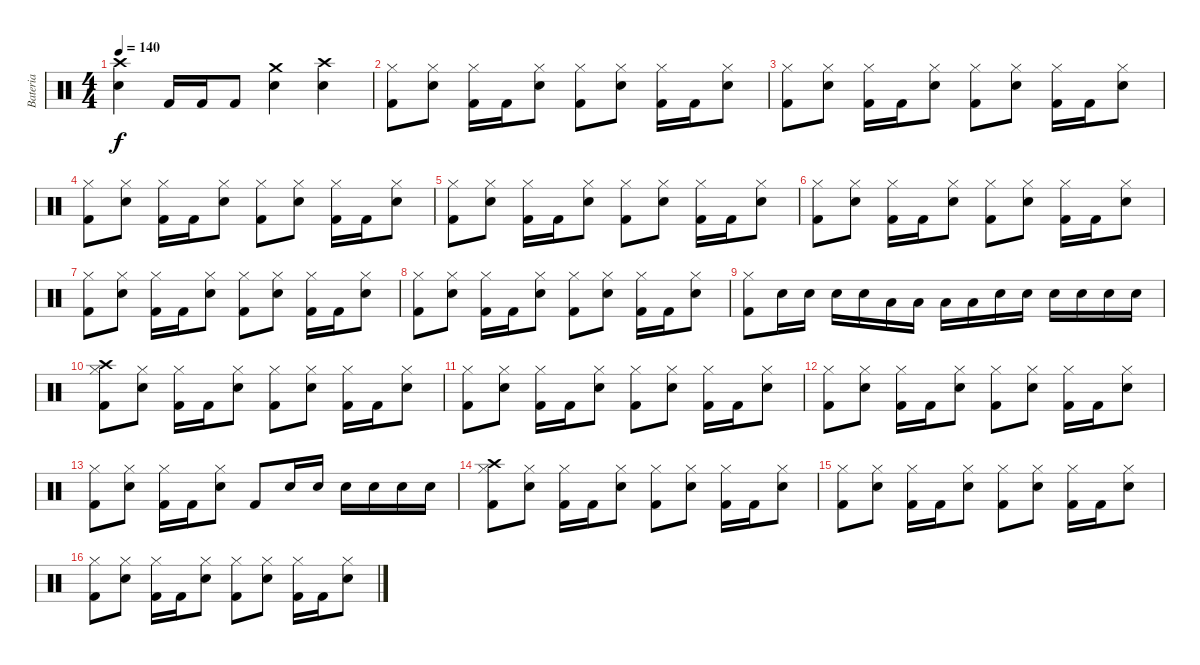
\track ("Bateria" "Bateria") {instrument percussion}
\staff {score}
\articulation defaults
\ts (4 4)
\tempo 140
\clef neutral
\ks c
("Electric Snare (hit)" "Crash high (hit)").4{dy f} "Kick (hit) 2".16 "Kick (hit) 2".16 "Kick (hit) 2".8 ("Electric Snare (hit)" "Crash medium (hit)").4 ("Electric Snare (hit)" "Crash high (hit)").4 |
("Kick (hit) 2" "Hi-Hat (closed)").8 ("Electric Snare (hit)" "Hi-Hat (closed)").8 ("Kick (hit) 2" "Hi-Hat (closed)").16 "Kick (hit) 2".16 ("Electric Snare (hit)" "Hi-Hat (closed)").8 ("Kick (hit) 2" "Hi-Hat (closed)").8 ("Electric Snare (hit)" "Hi-Hat (closed)").8 ("Kick (hit) 2" "Hi-Hat (closed)").16 "Kick (hit) 2".16 ("Electric Snare (hit)" "Hi-Hat (closed)").8 |
("Kick (hit) 2" "Hi-Hat (closed)").8 ("Electric Snare (hit)" "Hi-Hat (closed)").8 ("Kick (hit) 2" "Hi-Hat (closed)").16 "Kick (hit) 2".16 ("Electric Snare (hit)" "Hi-Hat (closed)").8 ("Kick (hit) 2" "Hi-Hat (closed)").8 ("Electric Snare (hit)" "Hi-Hat (closed)").8 ("Kick (hit) 2" "Hi-Hat (closed)").16 "Kick (hit) 2".16 ("Electric Snare (hit)" "Hi-Hat (closed)").8 |
("Kick (hit) 2" "Hi-Hat (closed)").8 ("Electric Snare (hit)" "Hi-Hat (closed)").8 ("Kick (hit) 2" "Hi-Hat (closed)").16 "Kick (hit) 2".16 ("Electric Snare (hit)" "Hi-Hat (closed)").8 ("Kick (hit) 2" "Hi-Hat (closed)").8 ("Electric Snare (hit)" "Hi-Hat (closed)").8 ("Kick (hit) 2" "Hi-Hat (closed)").16 "Kick (hit) 2".16 ("Electric Snare (hit)" "Hi-Hat (closed)").8 |
("Kick (hit) 2" "Hi-Hat (closed)").8 ("Electric Snare (hit)" "Hi-Hat (closed)").8 ("Kick (hit) 2" "Hi-Hat (closed)").16 "Kick (hit) 2".16 ("Electric Snare (hit)" "Hi-Hat (closed)").8 ("Kick (hit) 2" "Hi-Hat (closed)").8 ("Electric Snare (hit)" "Hi-Hat (closed)").8 ("Kick (hit) 2" "Hi-Hat (closed)").16 "Kick (hit) 2".16 ("Electric Snare (hit)" "Hi-Hat (closed)").8 |
("Kick (hit) 2" "Hi-Hat (closed)").8 ("Electric Snare (hit)" "Hi-Hat (closed)").8 ("Kick (hit) 2" "Hi-Hat (closed)").16 "Kick (hit) 2".16 ("Electric Snare (hit)" "Hi-Hat (closed)").8 ("Kick (hit) 2" "Hi-Hat (closed)").8 ("Electric Snare (hit)" "Hi-Hat (closed)").8 ("Kick (hit) 2" "Hi-Hat (closed)").16 "Kick (hit) 2".16 ("Electric Snare (hit)" "Hi-Hat (closed)").8 |
("Kick (hit) 2" "Hi-Hat (closed)").8 ("Electric Snare (hit)" "Hi-Hat (closed)").8 ("Kick (hit) 2" "Hi-Hat (closed)").16 "Kick (hit) 2".16 ("Electric Snare (hit)" "Hi-Hat (closed)").8 ("Kick (hit) 2" "Hi-Hat (closed)").8 ("Electric Snare (hit)" "Hi-Hat (closed)").8 ("Kick (hit) 2" "Hi-Hat (closed)").16 "Kick (hit) 2".16 ("Electric Snare (hit)" "Hi-Hat (closed)").8 |
("Kick (hit) 2" "Hi-Hat (closed)").8 ("Electric Snare (hit)" "Hi-Hat (closed)").8 ("Kick (hit) 2" "Hi-Hat (closed)").16 "Kick (hit) 2".16 ("Electric Snare (hit)" "Hi-Hat (closed)").8 ("Kick (hit) 2" "Hi-Hat (closed)").8 ("Electric Snare (hit)" "Hi-Hat (closed)").8 ("Kick (hit) 2" "Hi-Hat (closed)").16 "Kick (hit) 2".16 ("Electric Snare (hit)" "Hi-Hat (closed)").8 |
("Kick (hit) 2" "Hi-Hat (closed)").8 "Electric Snare (hit)".16 "Electric Snare (hit)".16 "Electric Snare (hit)".16 "Electric Snare (hit)".16 "Low Tom (hit)".16 "Low Tom (hit)".16 "Low Tom (hit)".16 "Low Tom (hit)".16 "Electric Snare (hit)".16 "Electric Snare (hit)".16 "Electric Snare (hit)".16 "Electric Snare (hit)".16 "Electric Snare (hit)".16 "Electric Snare (hit)".16 |
("Kick (hit) 2" "Hi-Hat (closed)" "Crash high (hit)").8 ("Electric Snare (hit)" "Hi-Hat (closed)").8 ("Kick (hit) 2" "Hi-Hat (closed)").16 "Kick (hit) 2".16 ("Electric Snare (hit)" "Hi-Hat (closed)").8 ("Kick (hit) 2" "Hi-Hat (closed)").8 ("Electric Snare (hit)" "Hi-Hat (closed)").8 ("Kick (hit) 2" "Hi-Hat (closed)").16 "Kick (hit) 2".16 ("Electric Snare (hit)" "Hi-Hat (closed)").8 |
("Kick (hit) 2" "Hi-Hat (closed)").8 ("Electric Snare (hit)" "Hi-Hat (closed)").8 ("Kick (hit) 2" "Hi-Hat (closed)").16 "Kick (hit) 2".16 ("Electric Snare (hit)" "Hi-Hat (closed)").8 ("Kick (hit) 2" "Hi-Hat (closed)").8 ("Electric Snare (hit)" "Hi-Hat (closed)").8 ("Kick (hit) 2" "Hi-Hat (closed)").16 "Kick (hit) 2".16 ("Electric Snare (hit)" "Hi-Hat (closed)").8 |
("Kick (hit) 2" "Hi-Hat (closed)").8 ("Electric Snare (hit)" "Hi-Hat (closed)").8 ("Kick (hit) 2" "Hi-Hat (closed)").16 "Kick (hit) 2".16 ("Electric Snare (hit)" "Hi-Hat (closed)").8 ("Kick (hit) 2" "Hi-Hat (closed)").8 ("Electric Snare (hit)" "Hi-Hat (closed)").8 ("Kick (hit) 2" "Hi-Hat (closed)").16 "Kick (hit) 2".16 ("Electric Snare (hit)" "Hi-Hat (closed)").8 |
("Kick (hit) 2" "Hi-Hat (closed)").8 ("Electric Snare (hit)" "Hi-Hat (closed)").8 ("Kick (hit) 2" "Hi-Hat (closed)").16 "Kick (hit) 2".16 ("Electric Snare (hit)" "Hi-Hat (closed)").8 "Kick (hit) 2".8 "Electric Snare (hit)".16 "Electric Snare (hit)".16 "Electric Snare (hit)".16 "Electric Snare (hit)".16 "Electric Snare (hit)".16 "Electric Snare (hit)".16 |
("Kick (hit) 2" "Hi-Hat (closed)" "Crash high (hit)").8 ("Electric Snare (hit)" "Hi-Hat (closed)").8 ("Kick (hit) 2" "Hi-Hat (closed)").16 "Kick (hit) 2".16 ("Electric Snare (hit)" "Hi-Hat (closed)").8 ("Kick (hit) 2" "Hi-Hat (closed)").8 ("Electric Snare (hit)" "Hi-Hat (closed)").8 ("Kick (hit) 2" "Hi-Hat (closed)").16 "Kick (hit) 2".16 ("Electric Snare (hit)" "Hi-Hat (closed)").8 |
("Kick (hit) 2" "Hi-Hat (closed)").8 ("Electric Snare (hit)" "Hi-Hat (closed)").8 ("Kick (hit) 2" "Hi-Hat (closed)").16 "Kick (hit) 2".16 ("Electric Snare (hit)" "Hi-Hat (closed)").8 ("Kick (hit) 2" "Hi-Hat (closed)").8 ("Electric Snare (hit)" "Hi-Hat (closed)").8 ("Kick (hit) 2" "Hi-Hat (closed)").16 "Kick (hit) 2".16 ("Electric Snare (hit)" "Hi-Hat (closed)").8 |
("Kick (hit) 2" "Hi-Hat (closed)").8 ("Electric Snare (hit)" "Hi-Hat (closed)").8 ("Kick (hit) 2" "Hi-Hat (closed)").16 "Kick (hit) 2".16 ("Electric Snare (hit)" "Hi-Hat (closed)").8 ("Kick (hit) 2" "Hi-Hat (closed)").8 ("Electric Snare (hit)" "Hi-Hat (closed)").8 ("Kick (hit) 2" "Hi-Hat (closed)").16 "Kick (hit) 2".16 ("Electric Snare (hit)" "Hi-Hat (closed)").8
